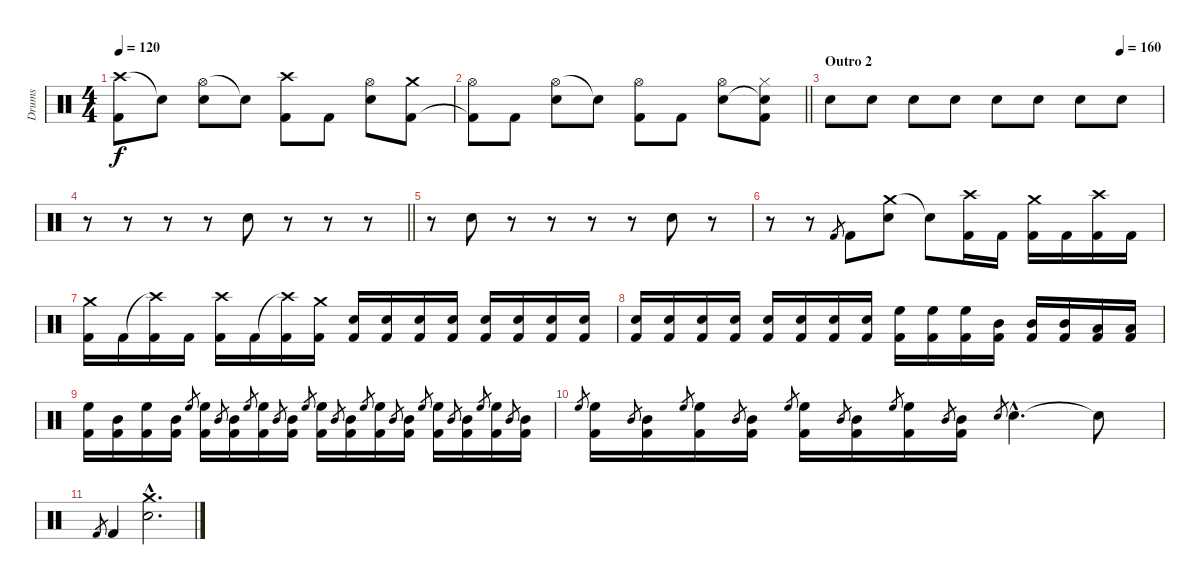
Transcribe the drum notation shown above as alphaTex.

\track ("Drums" "Drums") {instrument percussion}
\staff {score}
\articulation defaults
\ts (4 4)
\tempo 120
\clef neutral
\ks c
("Crash high (hit)" "Kick (hit) 2").8{dy f} "Snare (hit)"{t}.8 ("Hi-Hat (open)" "Snare (hit) 2").8 "Snare (hit)"{t}.8 ("Crash high (hit)" "Kick (hit) 2").8 "Kick (hit) 2".8 ("Hi-Hat (open)" "Snare (hit) 2").8 ("Crash medium (hit)" "Kick (hit) 2").8 |
\barLineRight lightlight
("Hi-Hat (open)" "Kick (hit) 2"{t}).8 "Kick (hit) 2".8 ("Hi-Hat (open)" "Snare (hit) 2").8 "Snare (hit)"{t}.8 ("Hi-Hat (open)" "Kick (hit) 2").8 "Kick (hit) 2".8 ("Hi-Hat (open)" "Snare (hit) 2").8 ("Hi-Hat (closed)" "Snare (hit)"{t} "Kick (hit) 2").8 |
\section ("" "Outro 2")
\tempo (160 0.875)
"Snare (hit) 2".8 "Snare (hit) 2".8 "Snare (hit) 2".8 "Snare (hit) 2".8 "Snare (hit) 2".8 "Snare (hit) 2".8 "Snare (hit) 2".8 "Snare (hit) 2".8 |
\barLineRight lightlight
r.8 r.8 r.8 r.8 "Snare (hit) 2".8 r.8 r.8 r.8 |
r.8 "Snare (hit) 2".8 r.8 r.8 r.8 r.8 "Snare (hit) 2".8 r.8 |
r.8 r.8 "Kick (hit) 2".8{gr} "Kick (hit) 2".8 ("Crash medium (hit)" "Snare (hit) 2").8 "Snare (hit)"{t}.8 ("Crash high (hit)" "Kick (hit) 2").16 "Kick (hit) 2".16 ("Crash medium (hit)" "Kick (hit) 2").16 "Kick (hit) 2".16 ("Crash high (hit)" "Kick (hit) 2").16 "Kick (hit) 2".16 |
("Crash medium (hit)" "Kick (hit) 2").16 "Kick (hit) 2".16 ("Crash high (hit)"{t} "Kick (hit) 2").16 "Kick (hit) 2".16 ("Crash high (hit)" "Kick (hit) 2").16 "Kick (hit) 2".16 ("Crash high (hit)"{t} "Kick (hit) 2").16 ("Crash medium (hit)" "Kick (hit) 2").16 ("Snare (hit) 2" "Kick (hit) 2").16 ("Snare (hit) 2" "Kick (hit) 2").16 ("Snare (hit) 2" "Kick (hit) 2").16 ("Snare (hit) 2" "Kick (hit) 2").16 ("Snare (hit) 2" "Kick (hit) 2").16 ("Snare (hit) 2" "Kick (hit) 2").16 ("Snare (hit) 2" "Kick (hit) 2").16 ("Snare (hit) 2" "Kick (hit) 2").16 |
("Snare (hit) 2" "Kick (hit) 2").16 ("Snare (hit) 2" "Kick (hit) 2").16 ("Snare (hit) 2" "Kick (hit) 2").16 ("Snare (hit) 2" "Kick (hit) 2").16 ("Snare (hit) 2" "Kick (hit) 2").16 ("Snare (hit) 2" "Kick (hit) 2").16 ("Snare (hit) 2" "Kick (hit) 2").16 ("Snare (hit) 2" "Kick (hit) 2").16 ("High Floor Tom (hit)" "Kick (hit) 2").16 ("High Floor Tom (hit)" "Kick (hit) 2").16 ("High Floor Tom (hit)" "Kick (hit) 2").16 ("Mid Tom (hit)" "Kick (hit) 2").16 ("Mid Tom (hit)" "Kick (hit) 2").16 ("Mid Tom (hit)" "Kick (hit) 2").16 ("Low Tom (hit)" "Kick (hit) 2").16 ("Low Tom (hit)" "Kick (hit) 2").16 |
("High Floor Tom (hit)" "Kick (hit) 2").16 ("Mid Tom (hit)" "Kick (hit) 2").16 ("High Floor Tom (hit)" "Kick (hit) 2").16 ("Mid Tom (hit)" "Kick (hit) 2").16 "High Floor Tom (hit)".8{gr} ("High Floor Tom (hit)" "Kick (hit) 2").16 "Mid Tom (hit)".8{gr} ("Mid Tom (hit)" "Kick (hit) 2").16 "High Floor Tom (hit)".8{gr} ("High Floor Tom (hit)" "Kick (hit) 2").16 "Mid Tom (hit)".8{gr} ("Mid Tom (hit)" "Kick (hit) 2").16 "High Floor Tom (hit)".8{gr} ("High Floor Tom (hit)" "Kick (hit) 2").16 "Mid Tom (hit)".8{gr} ("Mid Tom (hit)" "Kick (hit) 2").16 "High Floor Tom (hit)".8{gr} ("High Floor Tom (hit)" "Kick (hit) 2").16 "Mid Tom (hit)".8{gr} ("Mid Tom (hit)" "Kick (hit) 2").16 "High Floor Tom (hit)".8{gr} ("High Floor Tom (hit)" "Kick (hit) 2").16 "Mid Tom (hit)".8{gr} ("Mid Tom (hit)" "Kick (hit) 2").16 "High Floor Tom (hit)".8{gr} ("High Floor Tom (hit)" "Kick (hit) 2").16 "Mid Tom (hit)".8{gr} ("Mid Tom (hit)" "Kick (hit) 2").16 |
"High Floor Tom (hit)".8{gr} ("High Floor Tom (hit)" "Kick (hit) 2").16 "Mid Tom (hit)".8{gr} ("Mid Tom (hit)" "Kick (hit) 2").16 "High Floor Tom (hit)".8{gr} ("High Floor Tom (hit)" "Kick (hit) 2").16 "Mid Tom (hit)".8{gr} ("Mid Tom (hit)" "Kick (hit) 2").16 "High Floor Tom (hit)".8{gr} ("High Floor Tom (hit)" "Kick (hit) 2").16 "Mid Tom (hit)".8{gr} ("Mid Tom (hit)" "Kick (hit) 2").16 "High Floor Tom (hit)".8{gr} ("High Floor Tom (hit)" "Kick (hit) 2").16 "Mid Tom (hit)".8{gr} ("Mid Tom (hit)" "Kick (hit) 2").16 "Snare (hit) 2".8{gr} "Snare (hit) 2"{hac}.4{d} "Snare (hit) 2"{t}.8 |
"Kick (hit) 2".8{gr} "Kick (hit) 2".4 ("Crash medium (hit)"{hac} "Snare (hit) 2"{hac}).2{d}
